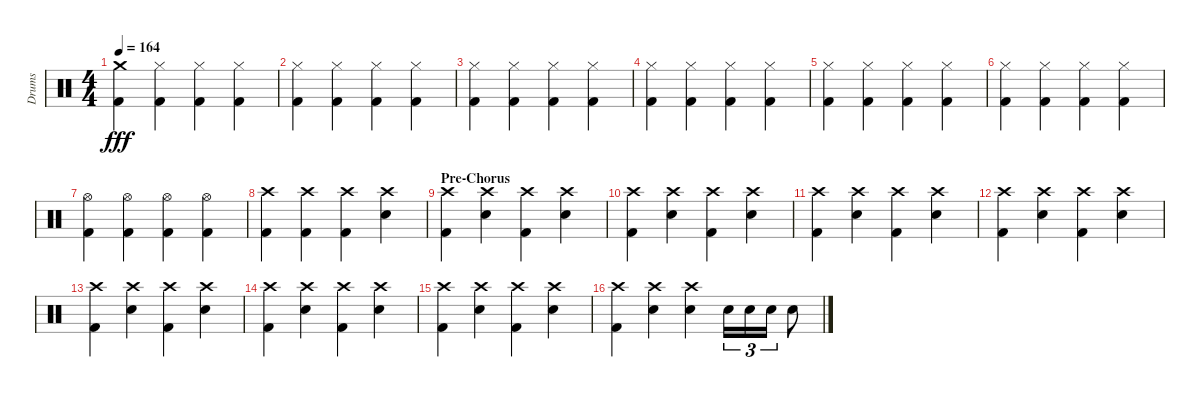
\track ("Drums" "Drums") {instrument percussion}
\staff {score}
\articulation defaults
\ts (4 4)
\tempo 164
\clef neutral
\ks c
("Crash medium (hit)" "Kick (hit) 2").4{dy fff} ("Hi-Hat (closed)" "Kick (hit) 2").4 ("Hi-Hat (closed)" "Kick (hit) 2").4 ("Hi-Hat (closed)" "Kick (hit) 2").4 |
("Hi-Hat (closed)" "Kick (hit) 2").4 ("Hi-Hat (closed)" "Kick (hit) 2").4 ("Hi-Hat (closed)" "Kick (hit) 2").4 ("Hi-Hat (closed)" "Kick (hit) 2").4 |
("Hi-Hat (closed)" "Kick (hit) 2").4 ("Hi-Hat (closed)" "Kick (hit) 2").4 ("Hi-Hat (closed)" "Kick (hit) 2").4 ("Hi-Hat (closed)" "Kick (hit) 2").4 |
("Hi-Hat (closed)" "Kick (hit) 2").4 ("Hi-Hat (closed)" "Kick (hit) 2").4 ("Hi-Hat (closed)" "Kick (hit) 2").4 ("Hi-Hat (closed)" "Kick (hit) 2").4 |
("Hi-Hat (closed)" "Kick (hit) 2").4 ("Hi-Hat (closed)" "Kick (hit) 2").4 ("Hi-Hat (closed)" "Kick (hit) 2").4 ("Hi-Hat (closed)" "Kick (hit) 2").4 |
("Hi-Hat (closed)" "Kick (hit) 2").4 ("Hi-Hat (closed)" "Kick (hit) 2").4 ("Hi-Hat (closed)" "Kick (hit) 2").4 ("Hi-Hat (closed)" "Kick (hit) 2").4 |
("Hi-Hat (open)" "Kick (hit) 2").4 ("Hi-Hat (open)" "Kick (hit) 2").4 ("Hi-Hat (open)" "Kick (hit) 2").4 ("Hi-Hat (open)" "Kick (hit) 2").4 |
("Crash high (hit)" "Kick (hit) 2").4 ("Crash high (hit)" "Kick (hit) 2").4 ("Crash high (hit)" "Kick (hit) 2").4 ("Crash high (hit)" "Electric Snare (hit)").4 |
\section ("" "Pre-Chorus")
("Crash high (hit)" "Kick (hit) 2").4 ("Crash high (hit)" "Electric Snare (hit)").4 ("Crash high (hit)" "Kick (hit) 2").4 ("Crash high (hit)" "Electric Snare (hit)").4 |
("Crash high (hit)" "Kick (hit) 2").4 ("Crash high (hit)" "Electric Snare (hit)").4 ("Crash high (hit)" "Kick (hit) 2").4 ("Crash high (hit)" "Electric Snare (hit)").4 |
("Crash high (hit)" "Kick (hit) 2").4 ("Crash high (hit)" "Electric Snare (hit)").4 ("Crash high (hit)" "Kick (hit) 2").4 ("Crash high (hit)" "Electric Snare (hit)").4 |
("Crash high (hit)" "Kick (hit) 2").4 ("Crash high (hit)" "Electric Snare (hit)").4 ("Crash high (hit)" "Kick (hit) 2").4 ("Crash high (hit)" "Electric Snare (hit)").4 |
("Crash high (hit)" "Kick (hit) 2").4 ("Crash high (hit)" "Electric Snare (hit)").4 ("Crash high (hit)" "Kick (hit) 2").4 ("Crash high (hit)" "Electric Snare (hit)").4 |
("Crash high (hit)" "Kick (hit) 2").4 ("Crash high (hit)" "Electric Snare (hit)").4 ("Crash high (hit)" "Kick (hit) 2").4 ("Crash high (hit)" "Electric Snare (hit)").4 |
("Crash high (hit)" "Kick (hit) 2").4 ("Crash high (hit)" "Electric Snare (hit)").4 ("Crash high (hit)" "Kick (hit) 2").4 ("Crash high (hit)" "Electric Snare (hit)").4 |
("Crash high (hit)" "Kick (hit) 2").4 ("Crash high (hit)" "Electric Snare (hit)").4 ("Crash high (hit)" "Electric Snare (hit)").4 "Electric Snare (hit)".16{tu (3 2)} "Electric Snare (hit)".16{tu (3 2)} "Electric Snare (hit)".16{tu (3 2)} "Electric Snare (hit)".8
